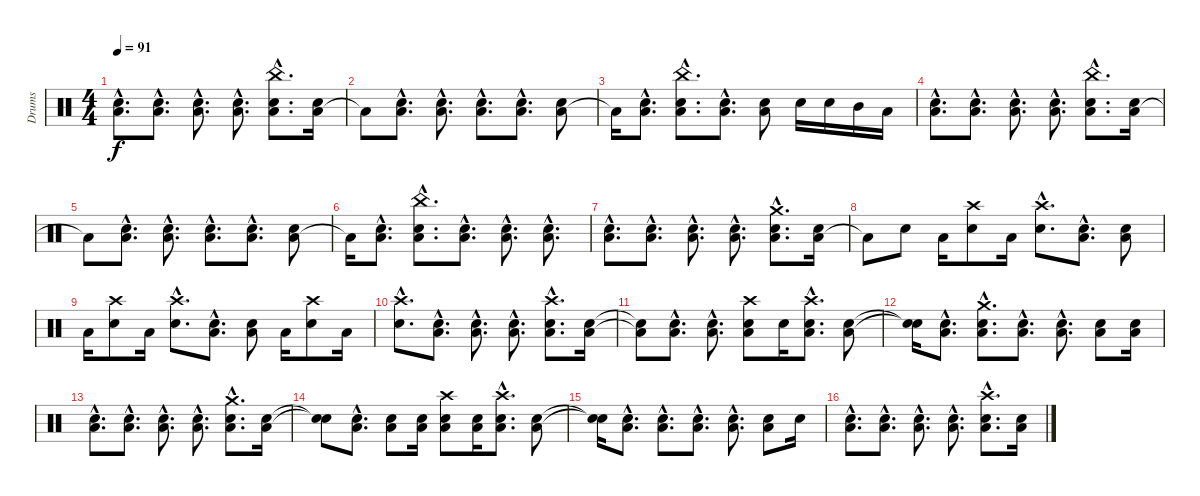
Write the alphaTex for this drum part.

\track ("Drums" "Drums") {instrument percussion}
\staff {score}
\articulation defaults
\ts (4 4)
\tempo 91
\clef neutral
\ks c
("Low Tom (hit)"{hac} "Electric Snare (hit)"{hac}).8{d dy f} ("Low Tom (hit)"{hac} "Electric Snare (hit)"{hac}).8{d} ("Low Tom (hit)"{hac} "Electric Snare (hit)"{hac}).8{d} ("Low Tom (hit)"{hac} "Electric Snare (hit)"{hac}).8{d} ("China (hit)"{hac} "Low Tom (hit)"{hac} "Electric Snare (hit)"{hac}).8{d} ("Low Tom (hit)" "Electric Snare (hit)").16 |
"Low Tom (hit)"{t}.8 ("Low Tom (hit)"{hac} "Electric Snare (hit)"{hac}).8{d} ("Low Tom (hit)"{hac} "Electric Snare (hit)"{hac}).8{d} ("Low Tom (hit)"{hac} "Electric Snare (hit)"{hac}).8{d} ("Low Tom (hit)"{hac} "Electric Snare (hit)"{hac}).8{d} ("Low Tom (hit)" "Electric Snare (hit)").8 |
"Low Tom (hit)"{t}.16 ("Low Tom (hit)"{hac} "Electric Snare (hit)"{hac}).8{d} ("China (hit)"{hac} "Low Tom (hit)"{hac} "Electric Snare (hit)"{hac}).8{d} ("Low Tom (hit)"{hac} "Electric Snare (hit)"{hac}).8{d} ("Low Tom (hit)" "Electric Snare (hit)").8 "Electric Snare (hit)".16 "Electric Snare (hit)".16 "Mid Tom (hit)".16 "Low Tom (hit)".16 |
("Low Tom (hit)"{hac} "Electric Snare (hit)"{hac}).8{d} ("Low Tom (hit)"{hac} "Electric Snare (hit)"{hac}).8{d} ("Low Tom (hit)"{hac} "Electric Snare (hit)"{hac}).8{d} ("Low Tom (hit)"{hac} "Electric Snare (hit)"{hac}).8{d} ("China (hit)"{hac} "Low Tom (hit)"{hac} "Electric Snare (hit)"{hac}).8{d} ("Low Tom (hit)" "Electric Snare (hit)").16 |
"Low Tom (hit)"{t}.8 ("Low Tom (hit)"{hac} "Electric Snare (hit)"{hac}).8{d} ("Low Tom (hit)"{hac} "Electric Snare (hit)"{hac}).8{d} ("Low Tom (hit)"{hac} "Electric Snare (hit)"{hac}).8{d} ("Low Tom (hit)"{hac} "Electric Snare (hit)"{hac}).8{d} ("Low Tom (hit)" "Electric Snare (hit)").8 |
"Low Tom (hit)"{t}.16 ("Low Tom (hit)"{hac} "Electric Snare (hit)"{hac}).8{d} ("China (hit)"{hac} "Low Tom (hit)"{hac} "Electric Snare (hit)"{hac}).8{d} ("Low Tom (hit)"{hac} "Electric Snare (hit)"{hac}).8{d} ("Low Tom (hit)"{hac} "Electric Snare (hit)"{hac}).8{d} ("Low Tom (hit)"{hac} "Electric Snare (hit)"{hac}).8{d} |
("Low Tom (hit)"{hac} "Electric Snare (hit)"{hac}).8{d} ("Low Tom (hit)"{hac} "Electric Snare (hit)"{hac}).8{d} ("Low Tom (hit)"{hac} "Electric Snare (hit)"{hac}).8{d} ("Low Tom (hit)"{hac} "Electric Snare (hit)"{hac}).8{d} ("Crash medium (hit)"{hac} "Low Tom (hit)"{hac} "Electric Snare (hit)"{hac}).8{d} ("Low Tom (hit)" "Electric Snare (hit)").16 |
"Low Tom (hit)"{t}.8 "Electric Snare (hit)".8 "Low Tom (hit)".16 ("Crash high (hit)" "Electric Snare (hit)").8 "Low Tom (hit)".16 ("Crash high (hit)"{hac} "Electric Snare (hit)"{hac}).8{d} ("Low Tom (hit)"{hac} "Electric Snare (hit)"{hac}).8{d} ("Low Tom (hit)" "Electric Snare (hit)").8 |
"Low Tom (hit)".16 ("Crash high (hit)" "Electric Snare (hit)").8 "Low Tom (hit)".16 ("Crash high (hit)"{hac} "Electric Snare (hit)"{hac}).8{d} ("Low Tom (hit)"{hac} "Electric Snare (hit)"{hac}).8{d} ("Low Tom (hit)" "Electric Snare (hit)").8 "Low Tom (hit)".16 ("Crash high (hit)" "Electric Snare (hit)").8 "Low Tom (hit)".16 |
("Crash high (hit)"{hac} "Electric Snare (hit)"{hac}).8{d} ("Low Tom (hit)"{hac} "Electric Snare (hit)"{hac}).8{d} ("Low Tom (hit)"{hac} "Electric Snare (hit)"{hac}).8{d} ("Low Tom (hit)"{hac} "Electric Snare (hit)"{hac}).8{d} ("Crash high (hit)"{hac} "Low Tom (hit)"{hac} "Electric Snare (hit)"{hac}).8{d} ("Low Tom (hit)" "Electric Snare (hit)").16 |
("Low Tom (hit)"{t} "Snare (hit)"{t}).8 ("Low Tom (hit)"{hac} "Electric Snare (hit)"{hac}).8{d} ("Low Tom (hit)"{hac} "Electric Snare (hit)"{hac}).8{d} ("Crash high (hit)" "Low Tom (hit)" "Electric Snare (hit)").8 "Electric Snare (hit)".16 ("Crash high (hit)"{hac} "Low Tom (hit)"{hac} "Electric Snare (hit)"{hac}).8{d} ("Low Tom (hit)" "Electric Snare (hit)").8 |
("Snare (hit)"{t} "Snare (hit)"{t}).16 ("Low Tom (hit)"{hac} "Electric Snare (hit)"{hac}).8{d} ("Crash medium (hit)"{hac} "Low Tom (hit)"{hac} "Electric Snare (hit)"{hac}).8{d} ("Low Tom (hit)"{hac} "Electric Snare (hit)"{hac}).8{d} ("Low Tom (hit)"{hac} "Electric Snare (hit)"{hac}).8{d} ("Low Tom (hit)" "Electric Snare (hit)").8 ("Low Tom (hit)" "Electric Snare (hit)").16 |
("Low Tom (hit)"{hac} "Electric Snare (hit)"{hac}).8{d} ("Low Tom (hit)"{hac} "Electric Snare (hit)"{hac}).8{d} ("Low Tom (hit)"{hac} "Electric Snare (hit)"{hac}).8{d} ("Low Tom (hit)"{hac} "Electric Snare (hit)"{hac}).8{d} ("Crash medium (hit)"{hac} "Low Tom (hit)"{hac} "Electric Snare (hit)"{hac}).8{d} ("Low Tom (hit)" "Electric Snare (hit)").16 |
("Snare (hit)"{t} "Snare (hit)"{t}).8 ("Low Tom (hit)"{hac} "Electric Snare (hit)"{hac}).8{d} ("Low Tom (hit)" "Electric Snare (hit)").8 ("Low Tom (hit)" "Electric Snare (hit)").16 ("Crash high (hit)" "Low Tom (hit)" "Electric Snare (hit)").8 ("Low Tom (hit)" "Electric Snare (hit)").16 ("Crash high (hit)"{hac} "Low Tom (hit)"{hac} "Electric Snare (hit)"{hac}).8{d} ("Low Tom (hit)" "Electric Snare (hit)").8 |
("Snare (hit)"{t} "Snare (hit)"{t}).16 ("Low Tom (hit)"{hac} "Electric Snare (hit)"{hac}).8{d} ("Low Tom (hit)"{hac} "Electric Snare (hit)"{hac}).8{d} ("Low Tom (hit)"{hac} "Electric Snare (hit)"{hac}).8{d} ("Low Tom (hit)"{hac} "Electric Snare (hit)"{hac}).8{d} ("Low Tom (hit)" "Electric Snare (hit)").8 "Electric Snare (hit)".16 |
("Low Tom (hit)"{hac} "Electric Snare (hit)"{hac}).8{d} ("Low Tom (hit)"{hac} "Electric Snare (hit)"{hac}).8{d} ("Low Tom (hit)"{hac} "Electric Snare (hit)"{hac}).8{d} ("Low Tom (hit)"{hac} "Electric Snare (hit)"{hac}).8{d} ("Crash high (hit)"{hac} "Low Tom (hit)"{hac} "Electric Snare (hit)"{hac}).8{d} ("Low Tom (hit)" "Electric Snare (hit)").16
